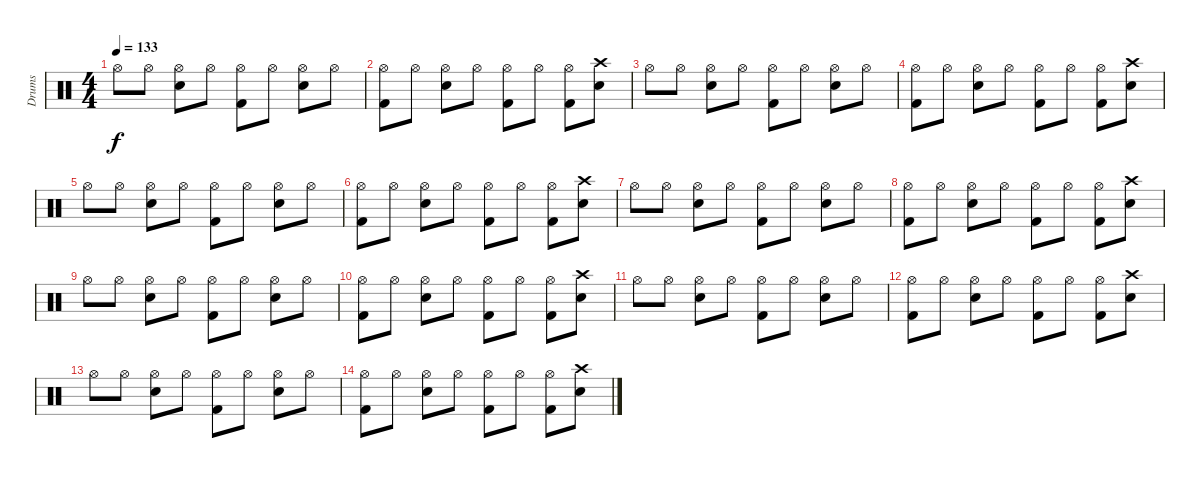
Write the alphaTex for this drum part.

\track ("Drums" "Drums") {instrument percussion}
\staff {score}
\articulation defaults
\ts (4 4)
\tempo 133
\clef neutral
\ks c "Hi-Hat (open)".8{dy f} "Hi-Hat (open)".8
("Hi-Hat (open)" "Snare (hit) 2").8 "Hi-Hat (open)".8 ("Hi-Hat (open)" "Kick (hit) 2").8 "Hi-Hat (open)".8 ("Hi-Hat (open)" "Snare (hit) 2").8 "Hi-Hat (open)".8 |
("Hi-Hat (open)" "Kick (hit) 2").8 "Hi-Hat (open)".8 ("Hi-Hat (open)" "Snare (hit) 2").8 "Hi-Hat (open)".8 ("Hi-Hat (open)" "Kick (hit) 2").8 "Hi-Hat (open)".8 ("Hi-Hat (open)" "Kick (hit) 2").8 ("Crash high (hit)" "Snare (hit) 2").8 |
"Hi-Hat (open)".8 "Hi-Hat (open)".8 ("Hi-Hat (open)" "Snare (hit) 2").8 "Hi-Hat (open)".8 ("Hi-Hat (open)" "Kick (hit) 2").8 "Hi-Hat (open)".8 ("Hi-Hat (open)" "Snare (hit) 2").8 "Hi-Hat (open)".8 |
("Hi-Hat (open)" "Kick (hit) 2").8 "Hi-Hat (open)".8 ("Hi-Hat (open)" "Snare (hit) 2").8 "Hi-Hat (open)".8 ("Hi-Hat (open)" "Kick (hit) 2").8 "Hi-Hat (open)".8 ("Hi-Hat (open)" "Kick (hit) 2").8 ("Crash high (hit)" "Snare (hit) 2").8 |
"Hi-Hat (open)".8 "Hi-Hat (open)".8 ("Hi-Hat (open)" "Snare (hit) 2").8 "Hi-Hat (open)".8 ("Hi-Hat (open)" "Kick (hit) 2").8 "Hi-Hat (open)".8 ("Hi-Hat (open)" "Snare (hit) 2").8 "Hi-Hat (open)".8 |
("Hi-Hat (open)" "Kick (hit) 2").8 "Hi-Hat (open)".8 ("Hi-Hat (open)" "Snare (hit) 2").8 "Hi-Hat (open)".8 ("Hi-Hat (open)" "Kick (hit) 2").8 "Hi-Hat (open)".8 ("Hi-Hat (open)" "Kick (hit) 2").8 ("Crash high (hit)" "Snare (hit) 2").8 |
"Hi-Hat (open)".8 "Hi-Hat (open)".8 ("Hi-Hat (open)" "Snare (hit) 2").8 "Hi-Hat (open)".8 ("Hi-Hat (open)" "Kick (hit) 2").8 "Hi-Hat (open)".8 ("Hi-Hat (open)" "Snare (hit) 2").8 "Hi-Hat (open)".8 |
("Hi-Hat (open)" "Kick (hit) 2").8{volume 7} "Hi-Hat (open)".8 ("Hi-Hat (open)" "Snare (hit) 2").8 "Hi-Hat (open)".8 ("Hi-Hat (open)" "Kick (hit) 2").8 "Hi-Hat (open)".8 ("Hi-Hat (open)" "Kick (hit) 2").8 ("Crash high (hit)" "Snare (hit) 2").8 |
"Hi-Hat (open)".8 "Hi-Hat (open)".8 ("Hi-Hat (open)" "Snare (hit) 2").8 "Hi-Hat (open)".8 ("Hi-Hat (open)" "Kick (hit) 2").8 "Hi-Hat (open)".8 ("Hi-Hat (open)" "Snare (hit) 2").8 "Hi-Hat (open)".8 |
("Hi-Hat (open)" "Kick (hit) 2").8 "Hi-Hat (open)".8 ("Hi-Hat (open)" "Snare (hit) 2").8 "Hi-Hat (open)".8 ("Hi-Hat (open)" "Kick (hit) 2").8 "Hi-Hat (open)".8 ("Hi-Hat (open)" "Kick (hit) 2").8 ("Crash high (hit)" "Snare (hit) 2").8 |
"Hi-Hat (open)".8 "Hi-Hat (open)".8 ("Hi-Hat (open)" "Snare (hit) 2").8 "Hi-Hat (open)".8 ("Hi-Hat (open)" "Kick (hit) 2").8 "Hi-Hat (open)".8 ("Hi-Hat (open)" "Snare (hit) 2").8 "Hi-Hat (open)".8 |
("Hi-Hat (open)" "Kick (hit) 2").8 "Hi-Hat (open)".8{volume 0} ("Hi-Hat (open)" "Snare (hit) 2").8 "Hi-Hat (open)".8 ("Hi-Hat (open)" "Kick (hit) 2").8 "Hi-Hat (open)".8 ("Hi-Hat (open)" "Kick (hit) 2").8 ("Crash high (hit)" "Snare (hit) 2").8 |
"Hi-Hat (open)".8 "Hi-Hat (open)".8 ("Hi-Hat (open)" "Snare (hit) 2").8 "Hi-Hat (open)".8 ("Hi-Hat (open)" "Kick (hit) 2").8 "Hi-Hat (open)".8 ("Hi-Hat (open)" "Snare (hit) 2").8 "Hi-Hat (open)".8 |
("Hi-Hat (open)" "Kick (hit) 2").8 "Hi-Hat (open)".8 ("Hi-Hat (open)" "Snare (hit) 2").8 "Hi-Hat (open)".8 ("Hi-Hat (open)" "Kick (hit) 2").8 "Hi-Hat (open)".8 ("Hi-Hat (open)" "Kick (hit) 2").8 ("Crash high (hit)" "Snare (hit) 2").8
